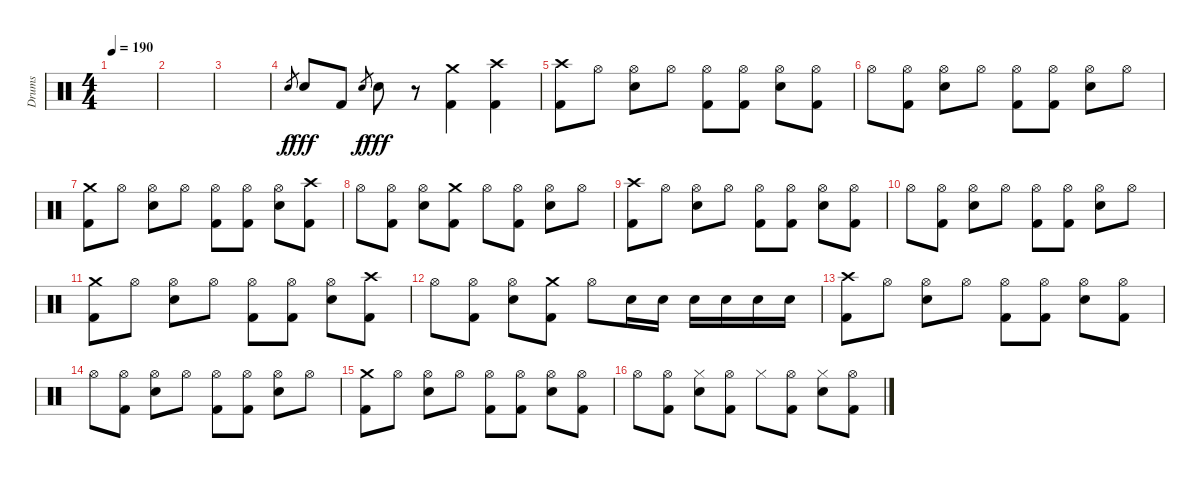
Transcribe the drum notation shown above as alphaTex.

\track ("Drums" "Drums") {instrument percussion}
\staff {score}
\articulation defaults
\ts (4 4)
\tempo 190
\clef neutral
\ks c
|
|
|
"Electric Snare (hit)".8{gr} "Electric Snare (hit)".8{dy fff} "Kick (hit) 2".8 "Electric Snare (hit)".8{gr dy f} "Electric Snare (hit)".8{dy fff} r.8 ("Crash medium (hit)" "Kick (hit) 2").4 ("Crash high (hit)" "Kick (hit) 2").4 |
("Crash high (hit)" "Kick (hit) 2").8 "Hi-Hat (open)".8 ("Hi-Hat (open)" "Electric Snare (hit)").8 "Hi-Hat (open)".8 ("Hi-Hat (open)" "Kick (hit) 2").8 ("Hi-Hat (open)" "Kick (hit) 2").8 ("Hi-Hat (open)" "Electric Snare (hit)").8 ("Hi-Hat (open)" "Kick (hit) 2").8 |
"Hi-Hat (open)".8 ("Hi-Hat (open)" "Kick (hit) 2").8 ("Hi-Hat (open)" "Electric Snare (hit)").8 "Hi-Hat (open)".8 ("Hi-Hat (open)" "Kick (hit) 2").8 ("Hi-Hat (open)" "Kick (hit) 2").8 ("Hi-Hat (open)" "Electric Snare (hit)").8 "Hi-Hat (open)".8 |
("Crash medium (hit)" "Kick (hit) 2").8 "Hi-Hat (open)".8 ("Hi-Hat (open)" "Electric Snare (hit)").8 "Hi-Hat (open)".8 ("Hi-Hat (open)" "Kick (hit) 2").8 ("Hi-Hat (open)" "Kick (hit) 2").8 ("Hi-Hat (open)" "Electric Snare (hit)").8 ("Crash high (hit)" "Kick (hit) 2").8 |
"Hi-Hat (open)".8 ("Hi-Hat (open)" "Kick (hit) 2").8 ("Hi-Hat (open)" "Electric Snare (hit)").8 ("Crash medium (hit)" "Kick (hit) 2").8 "Hi-Hat (open)".8 ("Hi-Hat (open)" "Kick (hit) 2").8 ("Hi-Hat (open)" "Electric Snare (hit)").8 "Hi-Hat (open)".8 |
("Crash high (hit)" "Kick (hit) 2").8 "Hi-Hat (open)".8 ("Hi-Hat (open)" "Electric Snare (hit)").8 "Hi-Hat (open)".8 ("Hi-Hat (open)" "Kick (hit) 2").8 ("Hi-Hat (open)" "Kick (hit) 2").8 ("Hi-Hat (open)" "Electric Snare (hit)").8 ("Hi-Hat (open)" "Kick (hit) 2").8 |
"Hi-Hat (open)".8 ("Hi-Hat (open)" "Kick (hit) 2").8 ("Hi-Hat (open)" "Electric Snare (hit)").8 "Hi-Hat (open)".8 ("Hi-Hat (open)" "Kick (hit) 2").8 ("Hi-Hat (open)" "Kick (hit) 2").8 ("Hi-Hat (open)" "Electric Snare (hit)").8 "Hi-Hat (open)".8 |
("Crash medium (hit)" "Kick (hit) 2").8 "Hi-Hat (open)".8 ("Hi-Hat (open)" "Electric Snare (hit)").8 "Hi-Hat (open)".8 ("Hi-Hat (open)" "Kick (hit) 2").8 ("Hi-Hat (open)" "Kick (hit) 2").8 ("Hi-Hat (open)" "Electric Snare (hit)").8 ("Crash high (hit)" "Kick (hit) 2").8 |
"Hi-Hat (open)".8 ("Hi-Hat (open)" "Kick (hit) 2").8 ("Hi-Hat (open)" "Electric Snare (hit)").8 ("Crash medium (hit)" "Kick (hit) 2").8 "Hi-Hat (open)".8 "Electric Snare (hit)".16 "Electric Snare (hit)".16 "Electric Snare (hit)".16 "Electric Snare (hit)".16 "Electric Snare (hit)".16 "Electric Snare (hit)".16 |
("Crash high (hit)" "Kick (hit) 2").8 "Hi-Hat (open)".8 ("Hi-Hat (open)" "Electric Snare (hit)").8 "Hi-Hat (open)".8 ("Hi-Hat (open)" "Kick (hit) 2").8 ("Hi-Hat (open)" "Kick (hit) 2").8 ("Hi-Hat (open)" "Electric Snare (hit)").8 ("Hi-Hat (open)" "Kick (hit) 2").8 |
"Hi-Hat (open)".8 ("Hi-Hat (open)" "Kick (hit) 2").8 ("Hi-Hat (open)" "Electric Snare (hit)").8 "Hi-Hat (open)".8 ("Hi-Hat (open)" "Kick (hit) 2").8 ("Hi-Hat (open)" "Kick (hit) 2").8 ("Hi-Hat (open)" "Electric Snare (hit)").8 "Hi-Hat (open)".8 |
("Crash medium (hit)" "Kick (hit) 2").8 "Hi-Hat (open)".8 ("Hi-Hat (open)" "Electric Snare (hit)").8 "Hi-Hat (open)".8 ("Hi-Hat (open)" "Kick (hit) 2").8 ("Hi-Hat (open)" "Kick (hit) 2").8 ("Hi-Hat (open)" "Electric Snare (hit)").8 ("Hi-Hat (open)" "Kick (hit) 2").8 |
"Hi-Hat (open)".8 ("Hi-Hat (open)" "Kick (hit) 2").8 ("Hi-Hat (closed)" "Electric Snare (hit)").8 ("Hi-Hat (open)" "Kick (hit) 2").8 "Hi-Hat (closed)".8 ("Hi-Hat (open)" "Kick (hit) 2").8 ("Hi-Hat (closed)" "Electric Snare (hit)").8 ("Hi-Hat (open)" "Kick (hit) 2").8
